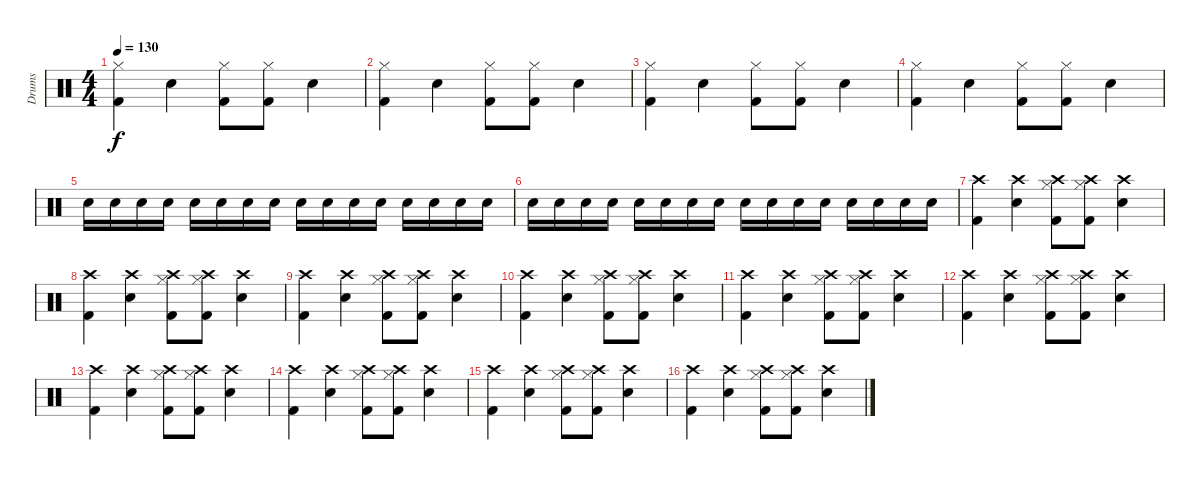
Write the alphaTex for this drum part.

\track ("Drums" "Drums") {instrument percussion}
\staff {score}
\articulation defaults
\ts (4 4)
\tempo 130
\clef neutral
\ks c
("Hi-Hat (closed)" "Kick (hit) 2").4{dy f} "Electric Snare (hit)".4 ("Kick (hit) 2" "Hi-Hat (closed)").8 ("Kick (hit) 2" "Hi-Hat (closed)").8 "Electric Snare (hit)".4 |
("Hi-Hat (closed)" "Kick (hit) 2").4 "Electric Snare (hit)".4 ("Kick (hit) 2" "Hi-Hat (closed)").8 ("Kick (hit) 2" "Hi-Hat (closed)").8 "Electric Snare (hit)".4 |
("Hi-Hat (closed)" "Kick (hit) 2").4 "Electric Snare (hit)".4 ("Kick (hit) 2" "Hi-Hat (closed)").8 ("Kick (hit) 2" "Hi-Hat (closed)").8 "Electric Snare (hit)".4 |
("Hi-Hat (closed)" "Kick (hit) 2").4 "Electric Snare (hit)".4 ("Kick (hit) 2" "Hi-Hat (closed)").8 ("Kick (hit) 2" "Hi-Hat (closed)").8 "Electric Snare (hit)".4 |
"Snare (hit) 2".16 "Snare (hit) 2".16 "Snare (hit) 2".16 "Snare (hit) 2".16 "Snare (hit) 2".16 "Snare (hit) 2".16 "Snare (hit) 2".16 "Snare (hit) 2".16 "Snare (hit) 2".16 "Snare (hit) 2".16 "Snare (hit) 2".16 "Snare (hit) 2".16 "Snare (hit) 2".16 "Snare (hit) 2".16 "Snare (hit) 2".16 "Snare (hit) 2".16 |
"Snare (hit) 2".16 "Snare (hit) 2".16 "Snare (hit) 2".16 "Snare (hit) 2".16 "Snare (hit) 2".16 "Snare (hit) 2".16 "Snare (hit) 2".16 "Snare (hit) 2".16 "Snare (hit) 2".16 "Snare (hit) 2".16 "Snare (hit) 2".16 "Snare (hit) 2".16 "Snare (hit) 2".16 "Snare (hit) 2".16 "Snare (hit) 2".16 "Snare (hit) 2".16 |
("Crash high (hit)" "Kick (hit) 2").4 ("Electric Snare (hit)" "Crash high (hit)").4 ("Kick (hit) 2" "Hi-Hat (closed)" "Crash high (hit)").8 ("Kick (hit) 2" "Hi-Hat (closed)" "Crash high (hit)").8 ("Electric Snare (hit)" "Crash high (hit)").4 |
("Crash high (hit)" "Kick (hit) 2").4 ("Electric Snare (hit)" "Crash high (hit)").4 ("Kick (hit) 2" "Hi-Hat (closed)" "Crash high (hit)").8 ("Kick (hit) 2" "Hi-Hat (closed)" "Crash high (hit)").8 ("Electric Snare (hit)" "Crash high (hit)").4 |
("Crash high (hit)" "Kick (hit) 2").4 ("Electric Snare (hit)" "Crash high (hit)").4 ("Kick (hit) 2" "Hi-Hat (closed)" "Crash high (hit)").8 ("Kick (hit) 2" "Hi-Hat (closed)" "Crash high (hit)").8 ("Electric Snare (hit)" "Crash high (hit)").4 |
("Crash high (hit)" "Kick (hit) 2").4 ("Electric Snare (hit)" "Crash high (hit)").4 ("Kick (hit) 2" "Hi-Hat (closed)" "Crash high (hit)").8 ("Kick (hit) 2" "Hi-Hat (closed)" "Crash high (hit)").8 ("Electric Snare (hit)" "Crash high (hit)").4 |
("Crash high (hit)" "Kick (hit) 2").4 ("Electric Snare (hit)" "Crash high (hit)").4 ("Kick (hit) 2" "Hi-Hat (closed)" "Crash high (hit)").8 ("Kick (hit) 2" "Hi-Hat (closed)" "Crash high (hit)").8 ("Electric Snare (hit)" "Crash high (hit)").4 |
("Crash high (hit)" "Kick (hit) 2").4 ("Electric Snare (hit)" "Crash high (hit)").4 ("Kick (hit) 2" "Hi-Hat (closed)" "Crash high (hit)").8 ("Kick (hit) 2" "Hi-Hat (closed)" "Crash high (hit)").8 ("Electric Snare (hit)" "Crash high (hit)").4 |
("Crash high (hit)" "Kick (hit) 2").4 ("Electric Snare (hit)" "Crash high (hit)").4 ("Kick (hit) 2" "Hi-Hat (closed)" "Crash high (hit)").8 ("Kick (hit) 2" "Hi-Hat (closed)" "Crash high (hit)").8 ("Electric Snare (hit)" "Crash high (hit)").4 |
("Crash high (hit)" "Kick (hit) 2").4 ("Electric Snare (hit)" "Crash high (hit)").4 ("Kick (hit) 2" "Hi-Hat (closed)" "Crash high (hit)").8 ("Kick (hit) 2" "Hi-Hat (closed)" "Crash high (hit)").8 ("Electric Snare (hit)" "Crash high (hit)").4 |
("Crash high (hit)" "Kick (hit) 2").4 ("Electric Snare (hit)" "Crash high (hit)").4 ("Kick (hit) 2" "Hi-Hat (closed)" "Crash high (hit)").8 ("Kick (hit) 2" "Hi-Hat (closed)" "Crash high (hit)").8 ("Electric Snare (hit)" "Crash high (hit)").4 |
("Crash high (hit)" "Kick (hit) 2").4 ("Electric Snare (hit)" "Crash high (hit)").4 ("Kick (hit) 2" "Hi-Hat (closed)" "Crash high (hit)").8 ("Kick (hit) 2" "Hi-Hat (closed)" "Crash high (hit)").8 ("Electric Snare (hit)" "Crash high (hit)").4
